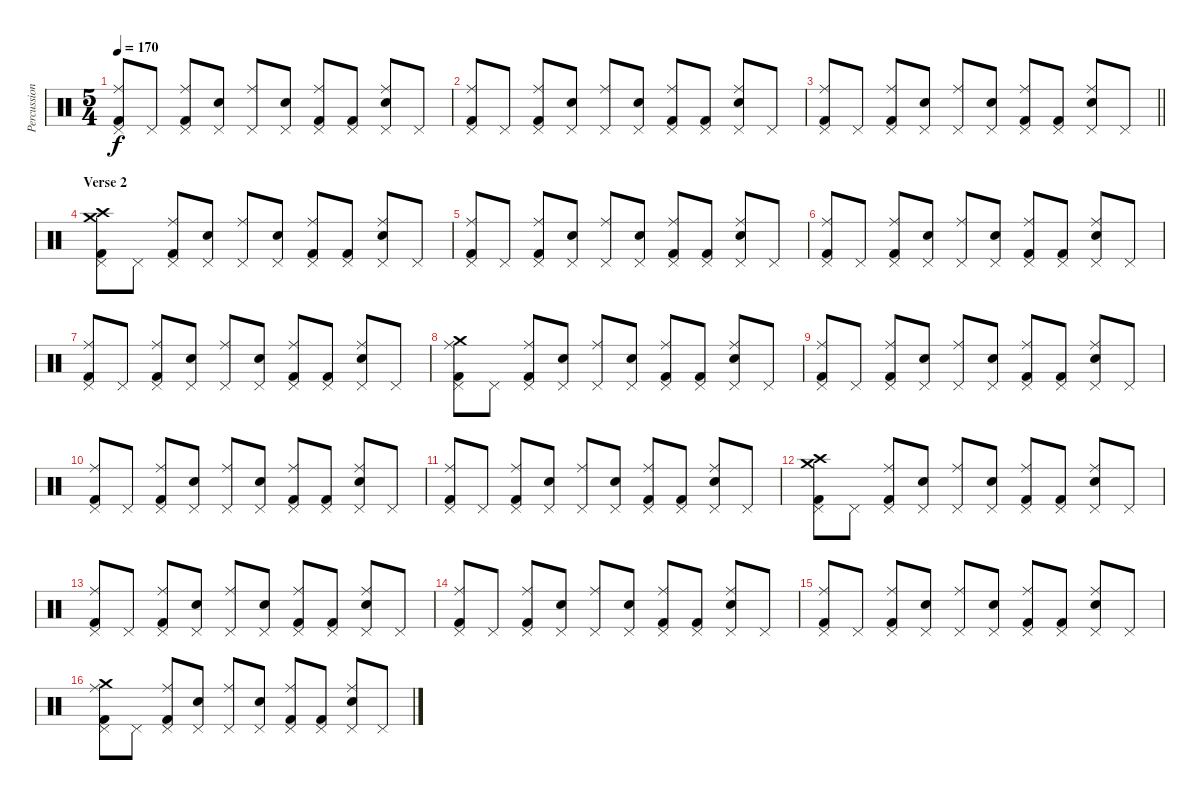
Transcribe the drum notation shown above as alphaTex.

\track ("Percussion" "Percussion") {instrument percussion}
\staff {score}
\articulation defaults
\ts (5 4)
\tempo 170
\clef neutral
\ks c
("Ride (middle)" "Pedal Hi-Hat (hit)" "Kick (hit) 2").8{dy f} "Pedal Hi-Hat (hit)".8 ("Ride (middle)" "Pedal Hi-Hat (hit)" "Kick (hit) 2").8 ("Electric Snare (hit)" "Pedal Hi-Hat (hit)").8 ("Ride (middle)" "Pedal Hi-Hat (hit)").8 ("Electric Snare (hit)" "Pedal Hi-Hat (hit)").8 ("Ride (middle)" "Pedal Hi-Hat (hit)" "Kick (hit) 2").8 ("Pedal Hi-Hat (hit)" "Kick (hit) 2").8 ("Ride (middle)" "Electric Snare (hit)" "Pedal Hi-Hat (hit)").8 "Pedal Hi-Hat (hit)".8 |
("Ride (middle)" "Pedal Hi-Hat (hit)" "Kick (hit) 2").8 "Pedal Hi-Hat (hit)".8 ("Ride (middle)" "Pedal Hi-Hat (hit)" "Kick (hit) 2").8 ("Electric Snare (hit)" "Pedal Hi-Hat (hit)").8 ("Ride (middle)" "Pedal Hi-Hat (hit)").8 ("Electric Snare (hit)" "Pedal Hi-Hat (hit)").8 ("Ride (middle)" "Pedal Hi-Hat (hit)" "Kick (hit) 2").8 ("Pedal Hi-Hat (hit)" "Kick (hit) 2").8 ("Ride (middle)" "Electric Snare (hit)" "Pedal Hi-Hat (hit)").8 "Pedal Hi-Hat (hit)".8 |
\barLineRight lightlight
("Ride (middle)" "Pedal Hi-Hat (hit)" "Kick (hit) 2").8 "Pedal Hi-Hat (hit)".8 ("Ride (middle)" "Pedal Hi-Hat (hit)" "Kick (hit) 2").8 ("Electric Snare (hit)" "Pedal Hi-Hat (hit)").8 ("Ride (middle)" "Pedal Hi-Hat (hit)").8 ("Electric Snare (hit)" "Pedal Hi-Hat (hit)").8 ("Ride (middle)" "Pedal Hi-Hat (hit)" "Kick (hit) 2").8 ("Pedal Hi-Hat (hit)" "Kick (hit) 2").8 ("Ride (middle)" "Electric Snare (hit)" "Pedal Hi-Hat (hit)").8 "Pedal Hi-Hat (hit)".8 |
\section ("" "Verse 2")
("Crash medium (hit)" "Crash high (hit)" "Pedal Hi-Hat (hit)" "Kick (hit) 2").8 "Pedal Hi-Hat (hit)".8 ("Ride (middle)" "Pedal Hi-Hat (hit)" "Kick (hit) 2").8 ("Electric Snare (hit)" "Pedal Hi-Hat (hit)").8 ("Ride (middle)" "Pedal Hi-Hat (hit)").8 ("Electric Snare (hit)" "Pedal Hi-Hat (hit)").8 ("Ride (middle)" "Pedal Hi-Hat (hit)" "Kick (hit) 2").8 ("Pedal Hi-Hat (hit)" "Kick (hit) 2").8 ("Ride (middle)" "Electric Snare (hit)" "Pedal Hi-Hat (hit)").8 "Pedal Hi-Hat (hit)".8 |
("Ride (middle)" "Pedal Hi-Hat (hit)" "Kick (hit) 2").8 "Pedal Hi-Hat (hit)".8 ("Ride (middle)" "Pedal Hi-Hat (hit)" "Kick (hit) 2").8 ("Electric Snare (hit)" "Pedal Hi-Hat (hit)").8 ("Ride (middle)" "Pedal Hi-Hat (hit)").8 ("Electric Snare (hit)" "Pedal Hi-Hat (hit)").8 ("Ride (middle)" "Pedal Hi-Hat (hit)" "Kick (hit) 2").8 ("Pedal Hi-Hat (hit)" "Kick (hit) 2").8 ("Ride (middle)" "Electric Snare (hit)" "Pedal Hi-Hat (hit)").8 "Pedal Hi-Hat (hit)".8 |
("Ride (middle)" "Pedal Hi-Hat (hit)" "Kick (hit) 2").8 "Pedal Hi-Hat (hit)".8 ("Ride (middle)" "Pedal Hi-Hat (hit)" "Kick (hit) 2").8 ("Electric Snare (hit)" "Pedal Hi-Hat (hit)").8 ("Ride (middle)" "Pedal Hi-Hat (hit)").8 ("Electric Snare (hit)" "Pedal Hi-Hat (hit)").8 ("Ride (middle)" "Pedal Hi-Hat (hit)" "Kick (hit) 2").8 ("Pedal Hi-Hat (hit)" "Kick (hit) 2").8 ("Ride (middle)" "Electric Snare (hit)" "Pedal Hi-Hat (hit)").8 "Pedal Hi-Hat (hit)".8 |
("Ride (middle)" "Pedal Hi-Hat (hit)" "Kick (hit) 2").8 "Pedal Hi-Hat (hit)".8 ("Ride (middle)" "Pedal Hi-Hat (hit)" "Kick (hit) 2").8 ("Electric Snare (hit)" "Pedal Hi-Hat (hit)").8 ("Ride (middle)" "Pedal Hi-Hat (hit)").8 ("Electric Snare (hit)" "Pedal Hi-Hat (hit)").8 ("Ride (middle)" "Pedal Hi-Hat (hit)" "Kick (hit) 2").8 ("Pedal Hi-Hat (hit)" "Kick (hit) 2").8 ("Ride (middle)" "Electric Snare (hit)" "Pedal Hi-Hat (hit)").8 "Pedal Hi-Hat (hit)".8 |
("Crash medium (hit)" "Ride (middle)" "Pedal Hi-Hat (hit)" "Kick (hit) 2").8 "Pedal Hi-Hat (hit)".8 ("Ride (middle)" "Pedal Hi-Hat (hit)" "Kick (hit) 2").8 ("Electric Snare (hit)" "Pedal Hi-Hat (hit)").8 ("Ride (middle)" "Pedal Hi-Hat (hit)").8 ("Electric Snare (hit)" "Pedal Hi-Hat (hit)").8 ("Ride (middle)" "Pedal Hi-Hat (hit)" "Kick (hit) 2").8 ("Pedal Hi-Hat (hit)" "Kick (hit) 2").8 ("Ride (middle)" "Electric Snare (hit)" "Pedal Hi-Hat (hit)").8 "Pedal Hi-Hat (hit)".8 |
("Ride (middle)" "Pedal Hi-Hat (hit)" "Kick (hit) 2").8 "Pedal Hi-Hat (hit)".8 ("Ride (middle)" "Pedal Hi-Hat (hit)" "Kick (hit) 2").8 ("Electric Snare (hit)" "Pedal Hi-Hat (hit)").8 ("Ride (middle)" "Pedal Hi-Hat (hit)").8 ("Electric Snare (hit)" "Pedal Hi-Hat (hit)").8 ("Ride (middle)" "Pedal Hi-Hat (hit)" "Kick (hit) 2").8 ("Pedal Hi-Hat (hit)" "Kick (hit) 2").8 ("Ride (middle)" "Electric Snare (hit)" "Pedal Hi-Hat (hit)").8 "Pedal Hi-Hat (hit)".8 |
("Ride (middle)" "Pedal Hi-Hat (hit)" "Kick (hit) 2").8 "Pedal Hi-Hat (hit)".8 ("Ride (middle)" "Pedal Hi-Hat (hit)" "Kick (hit) 2").8 ("Electric Snare (hit)" "Pedal Hi-Hat (hit)").8 ("Ride (middle)" "Pedal Hi-Hat (hit)").8 ("Electric Snare (hit)" "Pedal Hi-Hat (hit)").8 ("Ride (middle)" "Pedal Hi-Hat (hit)" "Kick (hit) 2").8 ("Pedal Hi-Hat (hit)" "Kick (hit) 2").8 ("Ride (middle)" "Electric Snare (hit)" "Pedal Hi-Hat (hit)").8 "Pedal Hi-Hat (hit)".8 |
("Ride (middle)" "Pedal Hi-Hat (hit)" "Kick (hit) 2").8 "Pedal Hi-Hat (hit)".8 ("Ride (middle)" "Pedal Hi-Hat (hit)" "Kick (hit) 2").8 ("Electric Snare (hit)" "Pedal Hi-Hat (hit)").8 ("Ride (middle)" "Pedal Hi-Hat (hit)").8 ("Electric Snare (hit)" "Pedal Hi-Hat (hit)").8 ("Ride (middle)" "Pedal Hi-Hat (hit)" "Kick (hit) 2").8 ("Pedal Hi-Hat (hit)" "Kick (hit) 2").8 ("Ride (middle)" "Electric Snare (hit)" "Pedal Hi-Hat (hit)").8 "Pedal Hi-Hat (hit)".8 |
("Crash medium (hit)" "Crash high (hit)" "Pedal Hi-Hat (hit)" "Kick (hit) 2").8 "Pedal Hi-Hat (hit)".8 ("Ride (middle)" "Pedal Hi-Hat (hit)" "Kick (hit) 2").8 ("Electric Snare (hit)" "Pedal Hi-Hat (hit)").8 ("Ride (middle)" "Pedal Hi-Hat (hit)").8 ("Electric Snare (hit)" "Pedal Hi-Hat (hit)").8 ("Ride (middle)" "Pedal Hi-Hat (hit)" "Kick (hit) 2").8 ("Pedal Hi-Hat (hit)" "Kick (hit) 2").8 ("Ride (middle)" "Electric Snare (hit)" "Pedal Hi-Hat (hit)").8 "Pedal Hi-Hat (hit)".8 |
("Ride (middle)" "Pedal Hi-Hat (hit)" "Kick (hit) 2").8 "Pedal Hi-Hat (hit)".8 ("Ride (middle)" "Pedal Hi-Hat (hit)" "Kick (hit) 2").8 ("Electric Snare (hit)" "Pedal Hi-Hat (hit)").8 ("Ride (middle)" "Pedal Hi-Hat (hit)").8 ("Electric Snare (hit)" "Pedal Hi-Hat (hit)").8 ("Ride (middle)" "Pedal Hi-Hat (hit)" "Kick (hit) 2").8 ("Pedal Hi-Hat (hit)" "Kick (hit) 2").8 ("Ride (middle)" "Electric Snare (hit)" "Pedal Hi-Hat (hit)").8 "Pedal Hi-Hat (hit)".8 |
("Ride (middle)" "Pedal Hi-Hat (hit)" "Kick (hit) 2").8 "Pedal Hi-Hat (hit)".8 ("Ride (middle)" "Pedal Hi-Hat (hit)" "Kick (hit) 2").8 ("Electric Snare (hit)" "Pedal Hi-Hat (hit)").8 ("Ride (middle)" "Pedal Hi-Hat (hit)").8 ("Electric Snare (hit)" "Pedal Hi-Hat (hit)").8 ("Ride (middle)" "Pedal Hi-Hat (hit)" "Kick (hit) 2").8 ("Pedal Hi-Hat (hit)" "Kick (hit) 2").8 ("Ride (middle)" "Electric Snare (hit)" "Pedal Hi-Hat (hit)").8 "Pedal Hi-Hat (hit)".8 |
("Ride (middle)" "Pedal Hi-Hat (hit)" "Kick (hit) 2").8 "Pedal Hi-Hat (hit)".8 ("Ride (middle)" "Pedal Hi-Hat (hit)" "Kick (hit) 2").8 ("Electric Snare (hit)" "Pedal Hi-Hat (hit)").8 ("Ride (middle)" "Pedal Hi-Hat (hit)").8 ("Electric Snare (hit)" "Pedal Hi-Hat (hit)").8 ("Ride (middle)" "Pedal Hi-Hat (hit)" "Kick (hit) 2").8 ("Pedal Hi-Hat (hit)" "Kick (hit) 2").8 ("Ride (middle)" "Electric Snare (hit)" "Pedal Hi-Hat (hit)").8 "Pedal Hi-Hat (hit)".8 |
("Crash medium (hit)" "Ride (middle)" "Pedal Hi-Hat (hit)" "Kick (hit) 2").8 "Pedal Hi-Hat (hit)".8 ("Ride (middle)" "Pedal Hi-Hat (hit)" "Kick (hit) 2").8 ("Electric Snare (hit)" "Pedal Hi-Hat (hit)").8 ("Ride (middle)" "Pedal Hi-Hat (hit)").8 ("Electric Snare (hit)" "Pedal Hi-Hat (hit)").8 ("Ride (middle)" "Pedal Hi-Hat (hit)" "Kick (hit) 2").8 ("Pedal Hi-Hat (hit)" "Kick (hit) 2").8 ("Ride (middle)" "Electric Snare (hit)" "Pedal Hi-Hat (hit)").8 "Pedal Hi-Hat (hit)".8
